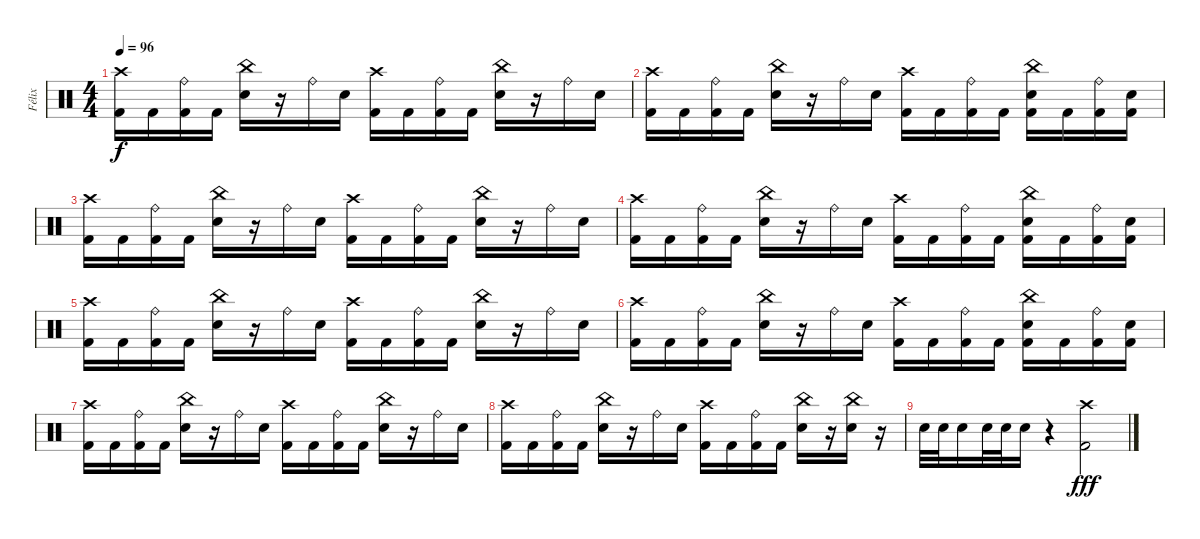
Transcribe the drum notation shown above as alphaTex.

\track ("Félix" "Félix") {instrument percussion}
\staff {score}
\articulation defaults
\ts (4 4)
\tempo 96
\clef neutral
\ks c
("Crash high (hit)" "Kick (hit) 2").16{dy f} "Kick (hit) 2".16 ("Ride (bell)" "Kick (hit) 2").16 "Kick (hit) 2".16 ("China (hit)" "Snare (hit) 2").16 r.16 "Ride (bell)".16 "Snare (hit) 2".16 ("Crash high (hit)" "Kick (hit) 2").16 "Kick (hit) 2".16 ("Ride (bell)" "Kick (hit) 2").16 "Kick (hit) 2".16 ("China (hit)" "Snare (hit) 2").16 r.16 "Ride (bell)".16 "Snare (hit) 2".16 |
("Crash high (hit)" "Kick (hit) 2").16 "Kick (hit) 2".16 ("Ride (bell)" "Kick (hit) 2").16 "Kick (hit) 2".16 ("China (hit)" "Snare (hit) 2").16 r.16 "Ride (bell)".16 "Snare (hit) 2".16 ("Crash high (hit)" "Kick (hit) 2").16 "Kick (hit) 2".16 ("Ride (bell)" "Kick (hit) 2").16 "Kick (hit) 2".16 ("China (hit)" "Snare (hit) 2" "Kick (hit) 2").16 "Kick (hit) 2".16 ("Ride (bell)" "Kick (hit) 2").16 ("Snare (hit) 2" "Kick (hit) 2").16 |
("Crash high (hit)" "Kick (hit) 2").16 "Kick (hit) 2".16 ("Ride (bell)" "Kick (hit) 2").16 "Kick (hit) 2".16 ("China (hit)" "Snare (hit) 2").16 r.16 "Ride (bell)".16 "Snare (hit) 2".16 ("Crash high (hit)" "Kick (hit) 2").16 "Kick (hit) 2".16 ("Ride (bell)" "Kick (hit) 2").16 "Kick (hit) 2".16 ("China (hit)" "Snare (hit) 2").16 r.16 "Ride (bell)".16 "Snare (hit) 2".16 |
("Crash high (hit)" "Kick (hit) 2").16 "Kick (hit) 2".16 ("Ride (bell)" "Kick (hit) 2").16 "Kick (hit) 2".16 ("China (hit)" "Snare (hit) 2").16 r.16 "Ride (bell)".16 "Snare (hit) 2".16 ("Crash high (hit)" "Kick (hit) 2").16 "Kick (hit) 2".16 ("Ride (bell)" "Kick (hit) 2").16 "Kick (hit) 2".16 ("China (hit)" "Snare (hit) 2" "Kick (hit) 2").16 "Kick (hit) 2".16 ("Ride (bell)" "Kick (hit) 2").16 ("Snare (hit) 2" "Kick (hit) 2").16 |
("Crash high (hit)" "Kick (hit) 2").16 "Kick (hit) 2".16 ("Ride (bell)" "Kick (hit) 2").16 "Kick (hit) 2".16 ("China (hit)" "Snare (hit) 2").16 r.16 "Ride (bell)".16 "Snare (hit) 2".16 ("Crash high (hit)" "Kick (hit) 2").16 "Kick (hit) 2".16 ("Ride (bell)" "Kick (hit) 2").16 "Kick (hit) 2".16 ("China (hit)" "Snare (hit) 2").16 r.16 "Ride (bell)".16 "Snare (hit) 2".16 |
("Crash high (hit)" "Kick (hit) 2").16 "Kick (hit) 2".16 ("Ride (bell)" "Kick (hit) 2").16 "Kick (hit) 2".16 ("China (hit)" "Snare (hit) 2").16 r.16 "Ride (bell)".16 "Snare (hit) 2".16 ("Crash high (hit)" "Kick (hit) 2").16 "Kick (hit) 2".16 ("Ride (bell)" "Kick (hit) 2").16 "Kick (hit) 2".16 ("China (hit)" "Snare (hit) 2" "Kick (hit) 2").16 "Kick (hit) 2".16 ("Ride (bell)" "Kick (hit) 2").16 ("Snare (hit) 2" "Kick (hit) 2").16 |
("Crash high (hit)" "Kick (hit) 2").16 "Kick (hit) 2".16 ("Ride (bell)" "Kick (hit) 2").16 "Kick (hit) 2".16 ("China (hit)" "Snare (hit) 2").16 r.16 "Ride (bell)".16 "Snare (hit) 2".16 ("Crash high (hit)" "Kick (hit) 2").16 "Kick (hit) 2".16 ("Ride (bell)" "Kick (hit) 2").16 "Kick (hit) 2".16 ("China (hit)" "Snare (hit) 2").16 r.16 "Ride (bell)".16 "Snare (hit) 2".16 |
("Crash high (hit)" "Kick (hit) 2").16 "Kick (hit) 2".16 ("Ride (bell)" "Kick (hit) 2").16 "Kick (hit) 2".16 ("China (hit)" "Snare (hit) 2").16 r.16 "Ride (bell)".16 "Snare (hit) 2".16 ("Crash high (hit)" "Kick (hit) 2").16 "Kick (hit) 2".16 ("Ride (bell)" "Kick (hit) 2").16 "Kick (hit) 2".16 ("China (hit)" "Snare (hit) 2").16 r.16 ("China (hit)" "Snare (hit) 2").16 r.16 |
"Snare (hit) 2".32 "Snare (hit) 2".32 "Snare (hit) 2".16 "Snare (hit) 2".32 "Snare (hit) 2".32 "Snare (hit) 2".16 r.4 ("Crash high (hit)" "Kick (hit) 2").2{dy fff}
